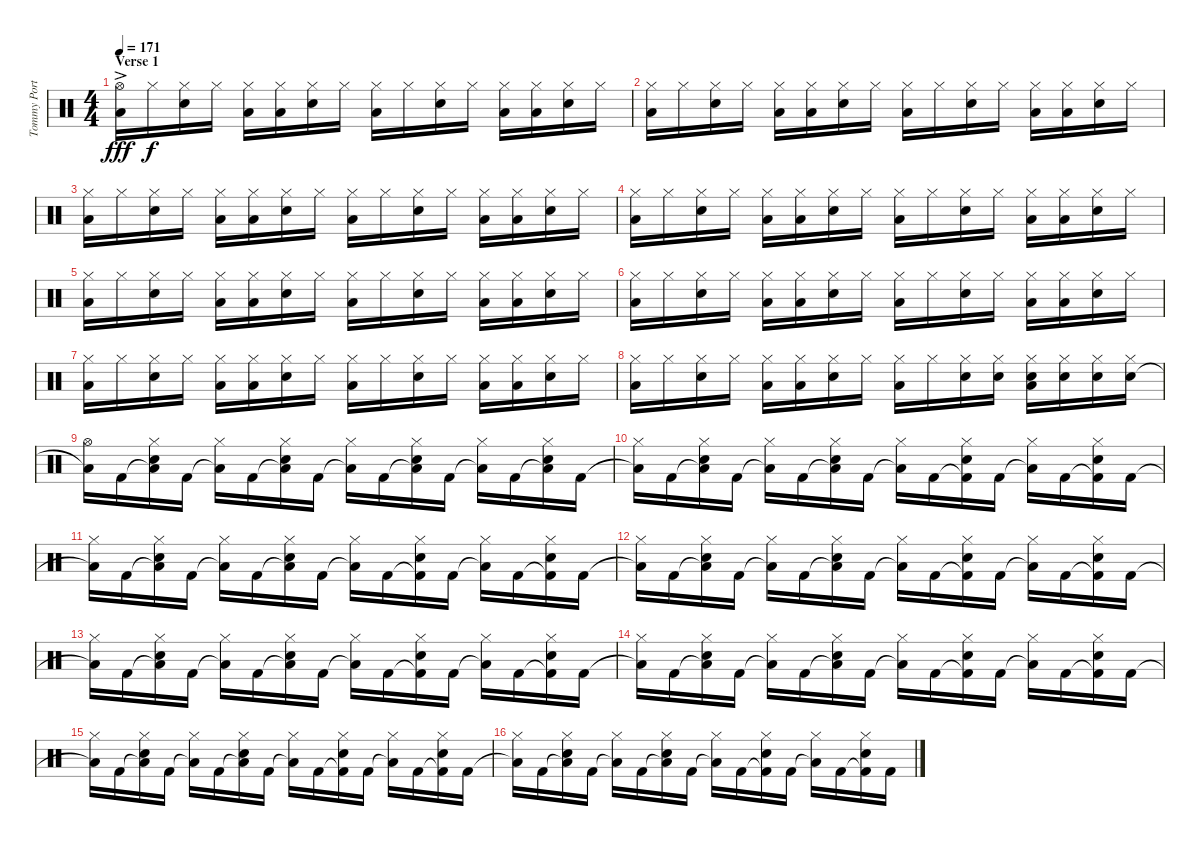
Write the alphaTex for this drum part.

\track ("Tommy Portino" "Tommy Port") {instrument percussion}
\staff {score}
\articulation defaults
\ts (4 4)
\section ("" "Verse 1")
\tempo 171
\clef neutral
\ks aminor
("Low Floor Tom (hit)"{ac} "Hi-Hat (open)").16{dy fff} "Hi-Hat (closed)".16{dy f} ("Electric Snare (hit)" "Hi-Hat (closed)").16 "Hi-Hat (closed)".16 ("Low Floor Tom (hit)" "Hi-Hat (closed)").16 ("Low Floor Tom (hit)" "Hi-Hat (closed)").16 ("Electric Snare (hit)" "Hi-Hat (closed)").16 "Hi-Hat (closed)".16 ("Low Floor Tom (hit)" "Hi-Hat (closed)").16 "Hi-Hat (closed)".16 ("Electric Snare (hit)" "Hi-Hat (closed)").16 "Hi-Hat (closed)".16 ("Low Floor Tom (hit)" "Hi-Hat (closed)").16 ("Low Floor Tom (hit)" "Hi-Hat (closed)").16 ("Electric Snare (hit)" "Hi-Hat (closed)").16 "Hi-Hat (closed)".16 |
("Low Floor Tom (hit)" "Hi-Hat (closed)").16 "Hi-Hat (closed)".16 ("Electric Snare (hit)" "Hi-Hat (closed)").16 "Hi-Hat (closed)".16 ("Low Floor Tom (hit)" "Hi-Hat (closed)").16 ("Low Floor Tom (hit)" "Hi-Hat (closed)").16 ("Electric Snare (hit)" "Hi-Hat (closed)").16 "Hi-Hat (closed)".16 ("Low Floor Tom (hit)" "Hi-Hat (closed)").16 "Hi-Hat (closed)".16 ("Electric Snare (hit)" "Hi-Hat (closed)").16 "Hi-Hat (closed)".16 ("Low Floor Tom (hit)" "Hi-Hat (closed)").16 ("Low Floor Tom (hit)" "Hi-Hat (closed)").16 ("Electric Snare (hit)" "Hi-Hat (closed)").16 "Hi-Hat (closed)".16 |
("Low Floor Tom (hit)" "Hi-Hat (closed)").16 "Hi-Hat (closed)".16 ("Electric Snare (hit)" "Hi-Hat (closed)").16 "Hi-Hat (closed)".16 ("Low Floor Tom (hit)" "Hi-Hat (closed)").16 ("Low Floor Tom (hit)" "Hi-Hat (closed)").16 ("Electric Snare (hit)" "Hi-Hat (closed)").16 "Hi-Hat (closed)".16 ("Low Floor Tom (hit)" "Hi-Hat (closed)").16 "Hi-Hat (closed)".16 ("Electric Snare (hit)" "Hi-Hat (closed)").16 "Hi-Hat (closed)".16 ("Low Floor Tom (hit)" "Hi-Hat (closed)").16 ("Low Floor Tom (hit)" "Hi-Hat (closed)").16 ("Electric Snare (hit)" "Hi-Hat (closed)").16 "Hi-Hat (closed)".16 |
("Low Floor Tom (hit)" "Hi-Hat (closed)").16 "Hi-Hat (closed)".16 ("Electric Snare (hit)" "Hi-Hat (closed)").16 "Hi-Hat (closed)".16 ("Low Floor Tom (hit)" "Hi-Hat (closed)").16 ("Low Floor Tom (hit)" "Hi-Hat (closed)").16 ("Electric Snare (hit)" "Hi-Hat (closed)").16 "Hi-Hat (closed)".16 ("Low Floor Tom (hit)" "Hi-Hat (closed)").16 "Hi-Hat (closed)".16 ("Electric Snare (hit)" "Hi-Hat (closed)").16 "Hi-Hat (closed)".16 ("Low Floor Tom (hit)" "Hi-Hat (closed)").16 ("Low Floor Tom (hit)" "Hi-Hat (closed)").16 ("Electric Snare (hit)" "Hi-Hat (closed)").16 "Hi-Hat (closed)".16 |
("Low Floor Tom (hit)" "Hi-Hat (closed)").16 "Hi-Hat (closed)".16 ("Electric Snare (hit)" "Hi-Hat (closed)").16 "Hi-Hat (closed)".16 ("Low Floor Tom (hit)" "Hi-Hat (closed)").16 ("Low Floor Tom (hit)" "Hi-Hat (closed)").16 ("Electric Snare (hit)" "Hi-Hat (closed)").16 "Hi-Hat (closed)".16 ("Low Floor Tom (hit)" "Hi-Hat (closed)").16 "Hi-Hat (closed)".16 ("Electric Snare (hit)" "Hi-Hat (closed)").16 "Hi-Hat (closed)".16 ("Low Floor Tom (hit)" "Hi-Hat (closed)").16 ("Low Floor Tom (hit)" "Hi-Hat (closed)").16 ("Electric Snare (hit)" "Hi-Hat (closed)").16 "Hi-Hat (closed)".16 |
("Low Floor Tom (hit)" "Hi-Hat (closed)").16 "Hi-Hat (closed)".16 ("Electric Snare (hit)" "Hi-Hat (closed)").16 "Hi-Hat (closed)".16 ("Low Floor Tom (hit)" "Hi-Hat (closed)").16 ("Low Floor Tom (hit)" "Hi-Hat (closed)").16 ("Electric Snare (hit)" "Hi-Hat (closed)").16 "Hi-Hat (closed)".16 ("Low Floor Tom (hit)" "Hi-Hat (closed)").16 "Hi-Hat (closed)".16 ("Electric Snare (hit)" "Hi-Hat (closed)").16 "Hi-Hat (closed)".16 ("Low Floor Tom (hit)" "Hi-Hat (closed)").16 ("Low Floor Tom (hit)" "Hi-Hat (closed)").16 ("Electric Snare (hit)" "Hi-Hat (closed)").16 "Hi-Hat (closed)".16 |
("Low Floor Tom (hit)" "Hi-Hat (closed)").16 "Hi-Hat (closed)".16 ("Electric Snare (hit)" "Hi-Hat (closed)").16 "Hi-Hat (closed)".16 ("Low Floor Tom (hit)" "Hi-Hat (closed)").16 ("Low Floor Tom (hit)" "Hi-Hat (closed)").16 ("Electric Snare (hit)" "Hi-Hat (closed)").16 "Hi-Hat (closed)".16 ("Low Floor Tom (hit)" "Hi-Hat (closed)").16 "Hi-Hat (closed)".16 ("Electric Snare (hit)" "Hi-Hat (closed)").16 "Hi-Hat (closed)".16 ("Low Floor Tom (hit)" "Hi-Hat (closed)").16 ("Low Floor Tom (hit)" "Hi-Hat (closed)").16 ("Electric Snare (hit)" "Hi-Hat (closed)").16 "Hi-Hat (closed)".16 |
("Low Floor Tom (hit)" "Hi-Hat (closed)").16 "Hi-Hat (closed)".16 ("Electric Snare (hit)" "Hi-Hat (closed)").16 "Hi-Hat (closed)".16 ("Low Floor Tom (hit)" "Hi-Hat (closed)").16 ("Low Floor Tom (hit)" "Hi-Hat (closed)").16 ("Electric Snare (hit)" "Hi-Hat (closed)").16 "Hi-Hat (closed)".16 ("Low Floor Tom (hit)" "Hi-Hat (closed)").16 "Hi-Hat (closed)".16 ("Electric Snare (hit)" "Hi-Hat (closed)").16 ("Electric Snare (hit)" "Hi-Hat (closed)").16 ("Low Floor Tom (hit)" "Electric Snare (hit)" "Hi-Hat (closed)").16 ("Electric Snare (hit)" "Hi-Hat (closed)").16 ("Electric Snare (hit)" "Hi-Hat (closed)").16 ("Electric Snare (hit)" "Hi-Hat (closed)").16 |
("Low Floor Tom (hit)"{t} "Hi-Hat (open)").16 "Kick (hit) 2".16 ("Low Floor Tom (hit)"{t} "Electric Snare (hit)" "Hi-Hat (closed)").16 "Kick (hit) 2".16 ("Low Floor Tom (hit)"{t} "Hi-Hat (closed)").16 "Kick (hit) 2".16 ("Low Floor Tom (hit)"{t} "Electric Snare (hit)" "Hi-Hat (closed)").16 "Kick (hit) 2".16 ("Low Floor Tom (hit)"{t} "Hi-Hat (closed)").16 "Kick (hit) 2".16 ("Low Floor Tom (hit)"{t} "Electric Snare (hit)" "Hi-Hat (closed)").16 "Kick (hit) 2".16 ("Low Floor Tom (hit)"{t} "Hi-Hat (closed)").16 "Kick (hit) 2".16 ("Low Floor Tom (hit)"{t} "Electric Snare (hit)" "Hi-Hat (closed)").16 "Kick (hit) 2".16 |
("Low Floor Tom (hit)"{t} "Hi-Hat (closed)").16 "Kick (hit) 2".16 ("Low Floor Tom (hit)"{t} "Electric Snare (hit)" "Hi-Hat (closed)").16 "Kick (hit) 2".16 ("Low Floor Tom (hit)"{t} "Hi-Hat (closed)").16 "Kick (hit) 2".16 ("Low Floor Tom (hit)"{t} "Electric Snare (hit)" "Hi-Hat (closed)").16 "Kick (hit) 2".16 ("Low Floor Tom (hit)"{t} "Hi-Hat (closed)").16 "Kick (hit) 2".16 ("Kick (hit) 2"{t} "Electric Snare (hit)" "Hi-Hat (closed)").16 "Kick (hit) 2".16 ("Low Floor Tom (hit)"{t} "Hi-Hat (closed)").16 "Kick (hit) 2".16 ("Kick (hit) 2"{t} "Electric Snare (hit)" "Hi-Hat (closed)").16 "Kick (hit) 2".16 |
("Low Floor Tom (hit)"{t} "Hi-Hat (closed)").16 "Kick (hit) 2".16 ("Low Floor Tom (hit)"{t} "Electric Snare (hit)" "Hi-Hat (closed)").16 "Kick (hit) 2".16 ("Low Floor Tom (hit)"{t} "Hi-Hat (closed)").16 "Kick (hit) 2".16 ("Low Floor Tom (hit)"{t} "Electric Snare (hit)" "Hi-Hat (closed)").16 "Kick (hit) 2".16 ("Low Floor Tom (hit)"{t} "Hi-Hat (closed)").16 "Kick (hit) 2".16 ("Kick (hit) 2"{t} "Electric Snare (hit)" "Hi-Hat (closed)").16 "Kick (hit) 2".16 ("Low Floor Tom (hit)"{t} "Hi-Hat (closed)").16 "Kick (hit) 2".16 ("Kick (hit) 2"{t} "Electric Snare (hit)" "Hi-Hat (closed)").16 "Kick (hit) 2".16 |
("Low Floor Tom (hit)"{t} "Hi-Hat (closed)").16 "Kick (hit) 2".16 ("Low Floor Tom (hit)"{t} "Electric Snare (hit)" "Hi-Hat (closed)").16 "Kick (hit) 2".16 ("Low Floor Tom (hit)"{t} "Hi-Hat (closed)").16 "Kick (hit) 2".16 ("Low Floor Tom (hit)"{t} "Electric Snare (hit)" "Hi-Hat (closed)").16 "Kick (hit) 2".16 ("Low Floor Tom (hit)"{t} "Hi-Hat (closed)").16 "Kick (hit) 2".16 ("Kick (hit) 2"{t} "Electric Snare (hit)" "Hi-Hat (closed)").16 "Kick (hit) 2".16 ("Low Floor Tom (hit)"{t} "Hi-Hat (closed)").16 "Kick (hit) 2".16 ("Kick (hit) 2"{t} "Electric Snare (hit)" "Hi-Hat (closed)").16 "Kick (hit) 2".16 |
("Low Floor Tom (hit)"{t} "Hi-Hat (closed)").16 "Kick (hit) 2".16 ("Low Floor Tom (hit)"{t} "Electric Snare (hit)" "Hi-Hat (closed)").16 "Kick (hit) 2".16 ("Low Floor Tom (hit)"{t} "Hi-Hat (closed)").16 "Kick (hit) 2".16 ("Low Floor Tom (hit)"{t} "Electric Snare (hit)" "Hi-Hat (closed)").16 "Kick (hit) 2".16 ("Low Floor Tom (hit)"{t} "Hi-Hat (closed)").16 "Kick (hit) 2".16 ("Kick (hit) 2"{t} "Electric Snare (hit)" "Hi-Hat (closed)").16 "Kick (hit) 2".16 ("Low Floor Tom (hit)"{t} "Hi-Hat (closed)").16 "Kick (hit) 2".16 ("Kick (hit) 2"{t} "Electric Snare (hit)" "Hi-Hat (closed)").16 "Kick (hit) 2".16 |
("Low Floor Tom (hit)"{t} "Hi-Hat (closed)").16 "Kick (hit) 2".16 ("Low Floor Tom (hit)"{t} "Electric Snare (hit)" "Hi-Hat (closed)").16 "Kick (hit) 2".16 ("Low Floor Tom (hit)"{t} "Hi-Hat (closed)").16 "Kick (hit) 2".16 ("Low Floor Tom (hit)"{t} "Electric Snare (hit)" "Hi-Hat (closed)").16 "Kick (hit) 2".16 ("Low Floor Tom (hit)"{t} "Hi-Hat (closed)").16 "Kick (hit) 2".16 ("Kick (hit) 2"{t} "Electric Snare (hit)" "Hi-Hat (closed)").16 "Kick (hit) 2".16 ("Low Floor Tom (hit)"{t} "Hi-Hat (closed)").16 "Kick (hit) 2".16 ("Kick (hit) 2"{t} "Electric Snare (hit)" "Hi-Hat (closed)").16 "Kick (hit) 2".16 |
("Low Floor Tom (hit)"{t} "Hi-Hat (closed)").16 "Kick (hit) 2".16 ("Low Floor Tom (hit)"{t} "Electric Snare (hit)" "Hi-Hat (closed)").16 "Kick (hit) 2".16 ("Low Floor Tom (hit)"{t} "Hi-Hat (closed)").16 "Kick (hit) 2".16 ("Low Floor Tom (hit)"{t} "Electric Snare (hit)" "Hi-Hat (closed)").16 "Kick (hit) 2".16 ("Low Floor Tom (hit)"{t} "Hi-Hat (closed)").16 "Kick (hit) 2".16 ("Kick (hit) 2"{t} "Electric Snare (hit)" "Hi-Hat (closed)").16 "Kick (hit) 2".16 ("Low Floor Tom (hit)"{t} "Hi-Hat (closed)").16 "Kick (hit) 2".16 ("Kick (hit) 2"{t} "Electric Snare (hit)" "Hi-Hat (closed)").16 "Kick (hit) 2".16 |
("Low Floor Tom (hit)"{t} "Hi-Hat (closed)").16 "Kick (hit) 2".16 ("Low Floor Tom (hit)"{t} "Electric Snare (hit)" "Hi-Hat (closed)").16 "Kick (hit) 2".16 ("Low Floor Tom (hit)"{t} "Hi-Hat (closed)").16 "Kick (hit) 2".16 ("Low Floor Tom (hit)"{t} "Electric Snare (hit)" "Hi-Hat (closed)").16 "Kick (hit) 2".16 ("Low Floor Tom (hit)"{t} "Hi-Hat (closed)").16 "Kick (hit) 2".16 ("Kick (hit) 2"{t} "Electric Snare (hit)" "Hi-Hat (closed)").16 "Kick (hit) 2".16 ("Low Floor Tom (hit)"{t} "Hi-Hat (closed)").16 "Kick (hit) 2".16 ("Kick (hit) 2"{t} "Electric Snare (hit)" "Hi-Hat (closed)").16 "Kick (hit) 2".16
